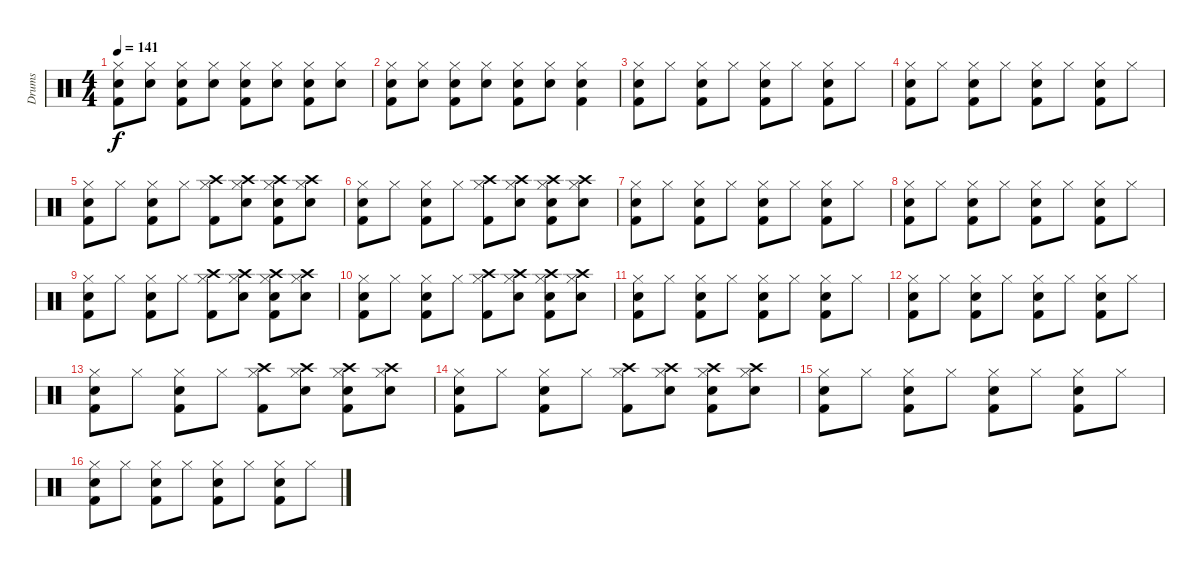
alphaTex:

\track ("Drums" "Drums") {instrument percussion}
\staff {score}
\articulation defaults
\ts (4 4)
\tempo 141
\clef neutral
\ks c
("Hi-Hat (closed)" "Electric Snare (hit)" "Kick (hit) 2").8{dy f} ("Hi-Hat (closed)" "Electric Snare (hit)").8 ("Hi-Hat (closed)" "Electric Snare (hit)" "Kick (hit) 2").8 ("Hi-Hat (closed)" "Electric Snare (hit)").8 ("Hi-Hat (closed)" "Electric Snare (hit)" "Kick (hit) 2").8 ("Hi-Hat (closed)" "Electric Snare (hit)").8 ("Hi-Hat (closed)" "Electric Snare (hit)" "Kick (hit) 2").8 ("Hi-Hat (closed)" "Electric Snare (hit)").8 |
("Hi-Hat (closed)" "Electric Snare (hit)" "Kick (hit) 2").8 ("Hi-Hat (closed)" "Electric Snare (hit)").8 ("Hi-Hat (closed)" "Electric Snare (hit)" "Kick (hit) 2").8 ("Hi-Hat (closed)" "Electric Snare (hit)").8 ("Hi-Hat (closed)" "Electric Snare (hit)" "Kick (hit) 2").8 ("Hi-Hat (closed)" "Electric Snare (hit)").8 ("Hi-Hat (closed)" "Electric Snare (hit)" "Kick (hit) 2").4 |
("Hi-Hat (closed)" "Electric Snare (hit)" "Kick (hit) 2").8 "Hi-Hat (closed)".8 ("Hi-Hat (closed)" "Electric Snare (hit)" "Kick (hit) 2").8 "Hi-Hat (closed)".8 ("Hi-Hat (closed)" "Electric Snare (hit)" "Kick (hit) 2").8 "Hi-Hat (closed)".8 ("Hi-Hat (closed)" "Electric Snare (hit)" "Kick (hit) 2").8 "Hi-Hat (closed)".8 |
("Hi-Hat (closed)" "Electric Snare (hit)" "Kick (hit) 2").8 "Hi-Hat (closed)".8 ("Hi-Hat (closed)" "Electric Snare (hit)" "Kick (hit) 2").8 "Hi-Hat (closed)".8 ("Hi-Hat (closed)" "Electric Snare (hit)" "Kick (hit) 2").8 "Hi-Hat (closed)".8 ("Hi-Hat (closed)" "Electric Snare (hit)" "Kick (hit) 2").8 "Hi-Hat (closed)".8 |
("Hi-Hat (closed)" "Electric Snare (hit)" "Kick (hit) 2").8 "Hi-Hat (closed)".8 ("Hi-Hat (closed)" "Electric Snare (hit)" "Kick (hit) 2").8 "Hi-Hat (closed)".8 ("Hi-Hat (closed)" "Crash high (hit)" "Kick (hit) 2").8 ("Hi-Hat (closed)" "Crash high (hit)" "Electric Snare (hit)").8 ("Hi-Hat (closed)" "Crash high (hit)" "Electric Snare (hit)" "Kick (hit) 2").8 ("Hi-Hat (closed)" "Crash high (hit)" "Electric Snare (hit)").8 |
("Hi-Hat (closed)" "Electric Snare (hit)" "Kick (hit) 2").8 "Hi-Hat (closed)".8 ("Hi-Hat (closed)" "Electric Snare (hit)" "Kick (hit) 2").8 "Hi-Hat (closed)".8 ("Hi-Hat (closed)" "Crash high (hit)" "Kick (hit) 2").8 ("Hi-Hat (closed)" "Crash high (hit)" "Electric Snare (hit)").8 ("Hi-Hat (closed)" "Crash high (hit)" "Electric Snare (hit)" "Kick (hit) 2").8 ("Hi-Hat (closed)" "Crash high (hit)" "Electric Snare (hit)").8 |
("Hi-Hat (closed)" "Electric Snare (hit)" "Kick (hit) 2").8 "Hi-Hat (closed)".8 ("Hi-Hat (closed)" "Electric Snare (hit)" "Kick (hit) 2").8 "Hi-Hat (closed)".8 ("Hi-Hat (closed)" "Electric Snare (hit)" "Kick (hit) 2").8 "Hi-Hat (closed)".8 ("Hi-Hat (closed)" "Electric Snare (hit)" "Kick (hit) 2").8 "Hi-Hat (closed)".8 |
("Hi-Hat (closed)" "Electric Snare (hit)" "Kick (hit) 2").8 "Hi-Hat (closed)".8 ("Hi-Hat (closed)" "Electric Snare (hit)" "Kick (hit) 2").8 "Hi-Hat (closed)".8 ("Hi-Hat (closed)" "Electric Snare (hit)" "Kick (hit) 2").8 "Hi-Hat (closed)".8 ("Hi-Hat (closed)" "Electric Snare (hit)" "Kick (hit) 2").8 "Hi-Hat (closed)".8 |
("Hi-Hat (closed)" "Electric Snare (hit)" "Kick (hit) 2").8 "Hi-Hat (closed)".8 ("Hi-Hat (closed)" "Electric Snare (hit)" "Kick (hit) 2").8 "Hi-Hat (closed)".8 ("Hi-Hat (closed)" "Crash high (hit)" "Kick (hit) 2").8 ("Hi-Hat (closed)" "Crash high (hit)" "Electric Snare (hit)").8 ("Hi-Hat (closed)" "Crash high (hit)" "Electric Snare (hit)" "Kick (hit) 2").8 ("Hi-Hat (closed)" "Crash high (hit)" "Electric Snare (hit)").8 |
("Hi-Hat (closed)" "Electric Snare (hit)" "Kick (hit) 2").8 "Hi-Hat (closed)".8 ("Hi-Hat (closed)" "Electric Snare (hit)" "Kick (hit) 2").8 "Hi-Hat (closed)".8 ("Hi-Hat (closed)" "Crash high (hit)" "Kick (hit) 2").8 ("Hi-Hat (closed)" "Crash high (hit)" "Electric Snare (hit)").8 ("Hi-Hat (closed)" "Crash high (hit)" "Electric Snare (hit)" "Kick (hit) 2").8 ("Hi-Hat (closed)" "Crash high (hit)" "Electric Snare (hit)").8 |
("Hi-Hat (closed)" "Electric Snare (hit)" "Kick (hit) 2").8 "Hi-Hat (closed)".8 ("Hi-Hat (closed)" "Electric Snare (hit)" "Kick (hit) 2").8 "Hi-Hat (closed)".8 ("Hi-Hat (closed)" "Electric Snare (hit)" "Kick (hit) 2").8 "Hi-Hat (closed)".8 ("Hi-Hat (closed)" "Electric Snare (hit)" "Kick (hit) 2").8 "Hi-Hat (closed)".8 |
("Hi-Hat (closed)" "Electric Snare (hit)" "Kick (hit) 2").8 "Hi-Hat (closed)".8 ("Hi-Hat (closed)" "Electric Snare (hit)" "Kick (hit) 2").8 "Hi-Hat (closed)".8 ("Hi-Hat (closed)" "Electric Snare (hit)" "Kick (hit) 2").8 "Hi-Hat (closed)".8 ("Hi-Hat (closed)" "Electric Snare (hit)" "Kick (hit) 2").8 "Hi-Hat (closed)".8 |
("Hi-Hat (closed)" "Electric Snare (hit)" "Kick (hit) 2").8 "Hi-Hat (closed)".8 ("Hi-Hat (closed)" "Electric Snare (hit)" "Kick (hit) 2").8 "Hi-Hat (closed)".8 ("Hi-Hat (closed)" "Crash high (hit)" "Kick (hit) 2").8 ("Hi-Hat (closed)" "Crash high (hit)" "Electric Snare (hit)").8 ("Hi-Hat (closed)" "Crash high (hit)" "Electric Snare (hit)" "Kick (hit) 2").8 ("Hi-Hat (closed)" "Crash high (hit)" "Electric Snare (hit)").8 |
("Hi-Hat (closed)" "Electric Snare (hit)" "Kick (hit) 2").8 "Hi-Hat (closed)".8 ("Hi-Hat (closed)" "Electric Snare (hit)" "Kick (hit) 2").8 "Hi-Hat (closed)".8 ("Hi-Hat (closed)" "Crash high (hit)" "Kick (hit) 2").8 ("Hi-Hat (closed)" "Crash high (hit)" "Electric Snare (hit)").8 ("Hi-Hat (closed)" "Crash high (hit)" "Electric Snare (hit)" "Kick (hit) 2").8 ("Hi-Hat (closed)" "Crash high (hit)" "Electric Snare (hit)").8 |
("Hi-Hat (closed)" "Electric Snare (hit)" "Kick (hit) 2").8 "Hi-Hat (closed)".8 ("Hi-Hat (closed)" "Electric Snare (hit)" "Kick (hit) 2").8 "Hi-Hat (closed)".8 ("Hi-Hat (closed)" "Electric Snare (hit)" "Kick (hit) 2").8 "Hi-Hat (closed)".8 ("Hi-Hat (closed)" "Electric Snare (hit)" "Kick (hit) 2").8 "Hi-Hat (closed)".8 |
("Hi-Hat (closed)" "Electric Snare (hit)" "Kick (hit) 2").8 "Hi-Hat (closed)".8 ("Hi-Hat (closed)" "Electric Snare (hit)" "Kick (hit) 2").8 "Hi-Hat (closed)".8 ("Hi-Hat (closed)" "Electric Snare (hit)" "Kick (hit) 2").8 "Hi-Hat (closed)".8 ("Hi-Hat (closed)" "Electric Snare (hit)" "Kick (hit) 2").8 "Hi-Hat (closed)".8
